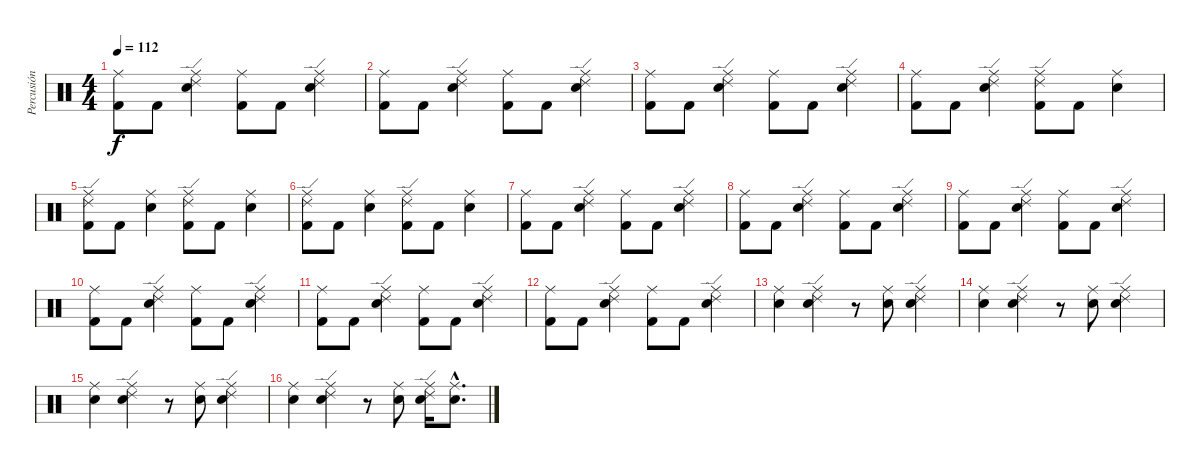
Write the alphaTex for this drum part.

\track ("Percusión" "Percusión") {instrument percussion}
\staff {score}
\articulation defaults
\ts (4 4)
\tempo 112
\clef neutral
\ks c
("Ride (middle)" "Kick (hit) 2").8{dy f} "Kick (hit) 2".8 ("Ride (edge) 2" "Ride (middle)" "Snare (hit) 2").4 ("Ride (middle)" "Kick (hit) 2").8 "Kick (hit) 2".8 ("Ride (edge) 2" "Ride (middle)" "Snare (hit) 2").4 |
("Ride (middle)" "Kick (hit) 2").8 "Kick (hit) 2".8 ("Ride (edge) 2" "Ride (middle)" "Snare (hit) 2").4 ("Ride (middle)" "Kick (hit) 2").8 "Kick (hit) 2".8 ("Ride (edge) 2" "Ride (middle)" "Snare (hit) 2").4 |
("Ride (middle)" "Kick (hit) 2").8 "Kick (hit) 2".8 ("Ride (edge) 2" "Ride (middle)" "Snare (hit) 2").4 ("Ride (middle)" "Kick (hit) 2").8 "Kick (hit) 2".8 ("Ride (edge) 2" "Ride (middle)" "Snare (hit) 2").4 |
("Ride (middle)" "Kick (hit) 2").8 "Kick (hit) 2".8 ("Ride (edge) 2" "Ride (middle)" "Snare (hit) 2").4 ("Ride (edge) 2" "Ride (middle)" "Kick (hit) 2").8 "Kick (hit) 2".8 ("Ride (middle)" "Snare (hit) 2").4 |
("Ride (edge) 2" "Ride (middle)" "Kick (hit) 2").8 "Kick (hit) 2".8 ("Ride (middle)" "Snare (hit) 2").4 ("Ride (edge) 2" "Ride (middle)" "Kick (hit) 2").8 "Kick (hit) 2".8 ("Ride (middle)" "Snare (hit) 2").4 |
("Ride (edge) 2" "Ride (middle)" "Kick (hit) 2").8 "Kick (hit) 2".8 ("Ride (middle)" "Snare (hit) 2").4 ("Ride (edge) 2" "Ride (middle)" "Kick (hit) 2").8 "Kick (hit) 2".8 ("Ride (middle)" "Snare (hit) 2").4 |
("Ride (middle)" "Kick (hit) 2").8 "Kick (hit) 2".8 ("Ride (edge) 2" "Ride (middle)" "Snare (hit) 2").4 ("Ride (middle)" "Kick (hit) 2").8 "Kick (hit) 2".8 ("Ride (edge) 2" "Ride (middle)" "Snare (hit) 2").4 |
("Ride (middle)" "Kick (hit) 2").8 "Kick (hit) 2".8 ("Ride (edge) 2" "Ride (middle)" "Snare (hit) 2").4 ("Ride (middle)" "Kick (hit) 2").8 "Kick (hit) 2".8 ("Ride (edge) 2" "Ride (middle)" "Snare (hit) 2").4 |
("Ride (middle)" "Kick (hit) 2").8 "Kick (hit) 2".8 ("Ride (edge) 2" "Ride (middle)" "Snare (hit) 2").4 ("Ride (middle)" "Kick (hit) 2").8 "Kick (hit) 2".8 ("Ride (edge) 2" "Ride (middle)" "Snare (hit) 2").4 |
("Ride (middle)" "Kick (hit) 2").8 "Kick (hit) 2".8 ("Ride (edge) 2" "Ride (middle)" "Snare (hit) 2").4 ("Ride (middle)" "Kick (hit) 2").8 "Kick (hit) 2".8 ("Ride (edge) 2" "Ride (middle)" "Snare (hit) 2").4 |
("Ride (middle)" "Kick (hit) 2").8 "Kick (hit) 2".8 ("Ride (edge) 2" "Ride (middle)" "Snare (hit) 2").4 ("Ride (middle)" "Kick (hit) 2").8 "Kick (hit) 2".8 ("Ride (edge) 2" "Ride (middle)" "Snare (hit) 2").4 |
("Ride (middle)" "Kick (hit) 2").8 "Kick (hit) 2".8 ("Ride (edge) 2" "Ride (middle)" "Snare (hit) 2").4 ("Ride (middle)" "Kick (hit) 2").8 "Kick (hit) 2".8 ("Ride (edge) 2" "Ride (middle)" "Snare (hit) 2").4 |
("Ride (middle)" "Electric Snare (hit)").4 ("Ride (edge) 2" "Ride (middle)" "Snare (hit) 2").4 r.8 ("Ride (middle)" "Electric Snare (hit)").8 ("Ride (edge) 2" "Ride (middle)" "Snare (hit) 2").4 |
("Ride (middle)" "Electric Snare (hit)").4 ("Ride (edge) 2" "Ride (middle)" "Snare (hit) 2").4 r.8 ("Ride (middle)" "Electric Snare (hit)").8 ("Ride (edge) 2" "Ride (middle)" "Snare (hit) 2").4 |
("Ride (middle)" "Electric Snare (hit)").4 ("Ride (edge) 2" "Ride (middle)" "Snare (hit) 2").4 r.8 ("Ride (middle)" "Electric Snare (hit)").8 ("Ride (edge) 2" "Ride (middle)" "Snare (hit) 2").4 |
("Ride (middle)" "Electric Snare (hit)").4 ("Ride (edge) 2" "Ride (middle)" "Snare (hit) 2").4 r.8 ("Ride (middle)" "Electric Snare (hit)").8 ("Ride (edge) 2" "Ride (middle)" "Snare (hit) 2").16 ("Ride (middle)"{hac} "Electric Snare (hit)"{hac}).8{d}
